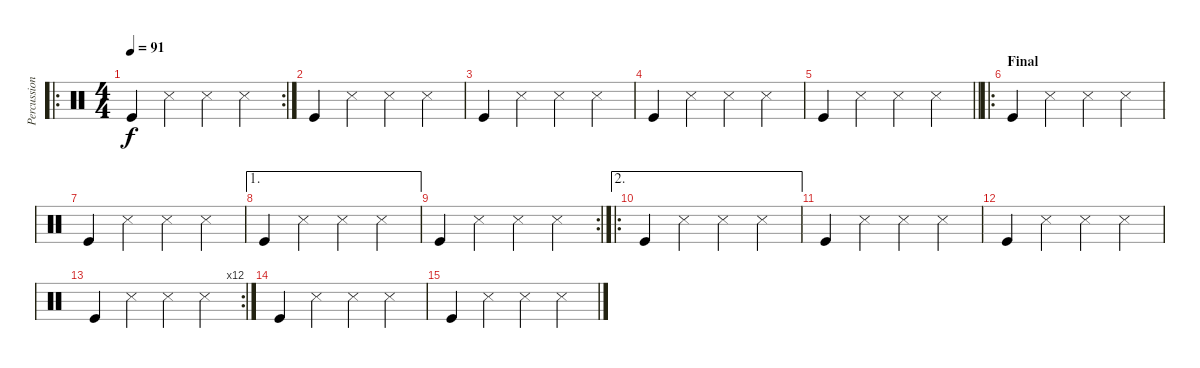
\track ("Percussions" "Percussion") {instrument percussion}
\staff {score}
\articulation defaults
\ro
\rc 2
\ts (4 4)
\tempo 91
\clef neutral
\ks c "Kick (hit)".4{dy f} "Snare (side stick) 3".4 "Snare (side stick) 3".4 "Metronome (hit)".4
|
"Kick (hit)".4 "Snare (side stick) 3".4 "Snare (side stick) 3".4 "Metronome (hit)".4 |
"Kick (hit)".4 "Snare (side stick) 3".4 "Snare (side stick) 3".4 "Metronome (hit)".4 |
"Kick (hit)".4 "Snare (side stick) 3".4 "Snare (side stick) 3".4 "Metronome (hit)".4 |
\barLineRight lightlight "Kick (hit)".4 "Snare (side stick) 3".4 "Snare (side stick) 3".4 "Metronome (hit)".4
|
\ro
\section ("" "Final")
"Kick (hit)".4 "Snare (side stick) 3".4 "Snare (side stick) 3".4 "Metronome (hit)".4 |
"Kick (hit)".4 "Snare (side stick) 3".4 "Snare (side stick) 3".4 "Metronome (hit)".4 |
\ae 1 "Kick (hit)".4 "Snare (side stick) 3".4 "Snare (side stick) 3".4 "Metronome (hit)".4
|
\rc 2 "Kick (hit)".4 "Snare (side stick) 3".4 "Snare (side stick) 3".4 "Metronome (hit)".4
|
\ae 2
\ro "Kick (hit)".4 "Snare (side stick) 3".4 "Snare (side stick) 3".4 "Metronome (hit)".4
|
"Kick (hit)".4 "Snare (side stick) 3".4 "Snare (side stick) 3".4 "Metronome (hit)".4 |
"Kick (hit)".4 "Snare (side stick) 3".4 "Snare (side stick) 3".4 "Metronome (hit)".4 |
\rc 12 "Kick (hit)".4 "Snare (side stick) 3".4 "Snare (side stick) 3".4 "Metronome (hit)".4
|
"Kick (hit)".4 "Snare (side stick) 3".4 "Snare (side stick) 3".4 "Metronome (hit)".4 |
"Kick (hit)".4 "Snare (side stick) 3".4 "Snare (side stick) 3".4 "Metronome (hit)".4
